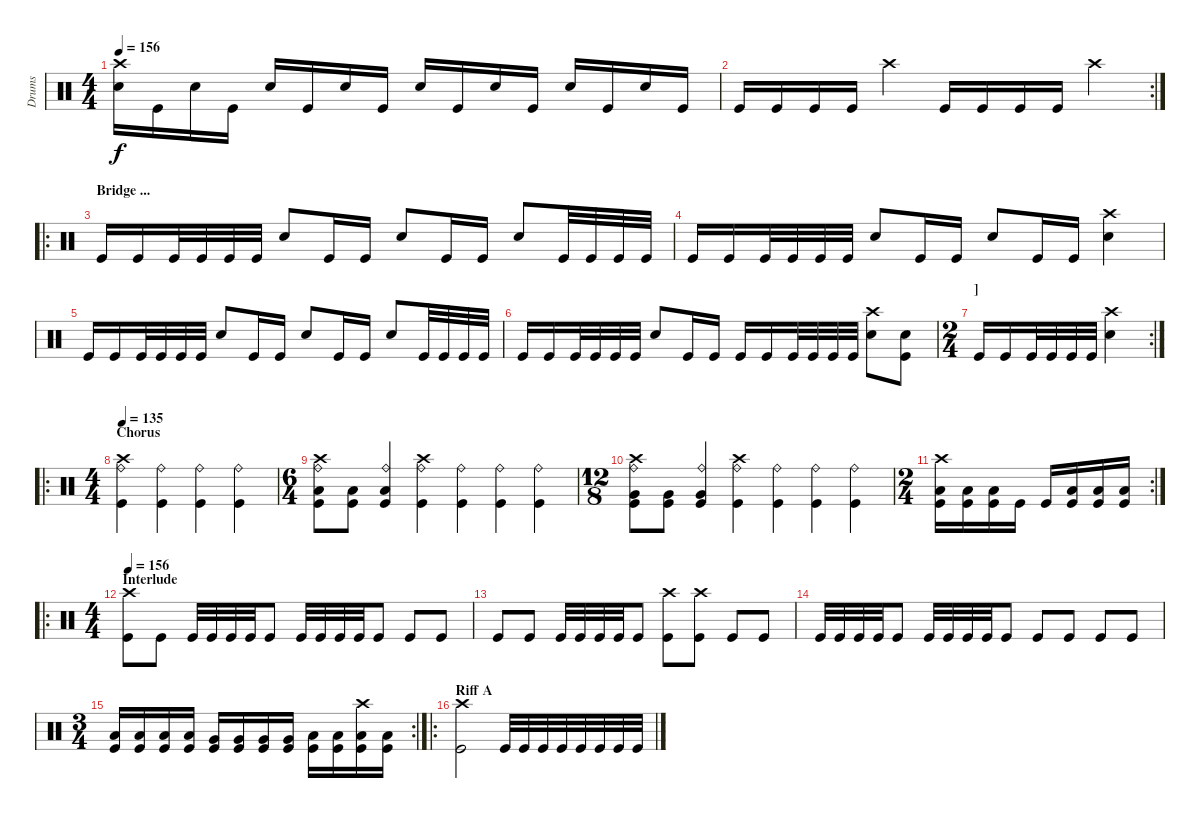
\track ("Drums" "Drums") {instrument percussion}
\staff {score}
\articulation defaults
\ts (4 4)
\tempo 156
\clef neutral
\ks c
("Crash high (hit)" "Electric Snare (hit)").16{dy f} "Kick (hit)".16 "Electric Snare (hit)".16 "Kick (hit)".16 "Electric Snare (hit)".16 "Kick (hit)".16 "Electric Snare (hit)".16 "Kick (hit)".16 "Electric Snare (hit)".16 "Kick (hit)".16 "Electric Snare (hit)".16 "Kick (hit)".16 "Electric Snare (hit)".16 "Kick (hit)".16 "Electric Snare (hit)".16 "Kick (hit)".16 |
\rc 2 "Kick (hit)".16 "Kick (hit)".16 "Kick (hit)".16 "Kick (hit)".16 "Crash high (hit)".4 "Kick (hit)".16 "Kick (hit)".16 "Kick (hit)".16 "Kick (hit)".16 "Crash high (hit)".4
|
\ro
\section ("" "Bridge ...")
"Kick (hit)".16 "Kick (hit)".16 "Kick (hit)".32 "Kick (hit)".32 "Kick (hit)".32 "Kick (hit)".32 "Electric Snare (hit)".8 "Kick (hit)".16 "Kick (hit)".16 "Electric Snare (hit)".8 "Kick (hit)".16 "Kick (hit)".16 "Electric Snare (hit)".8 "Kick (hit)".32 "Kick (hit)".32 "Kick (hit)".32 "Kick (hit)".32 |
"Kick (hit)".16 "Kick (hit)".16 "Kick (hit)".32 "Kick (hit)".32 "Kick (hit)".32 "Kick (hit)".32 "Electric Snare (hit)".8 "Kick (hit)".16 "Kick (hit)".16 "Electric Snare (hit)".8 "Kick (hit)".16 "Kick (hit)".16 ("Crash high (hit)" "Electric Snare (hit)").4 |
"Kick (hit)".16 "Kick (hit)".16 "Kick (hit)".32 "Kick (hit)".32 "Kick (hit)".32 "Kick (hit)".32 "Electric Snare (hit)".8 "Kick (hit)".16 "Kick (hit)".16 "Electric Snare (hit)".8 "Kick (hit)".16 "Kick (hit)".16 "Electric Snare (hit)".8 "Kick (hit)".32 "Kick (hit)".32 "Kick (hit)".32 "Kick (hit)".32 |
"Kick (hit)".16 "Kick (hit)".16 "Kick (hit)".32 "Kick (hit)".32 "Kick (hit)".32 "Kick (hit)".32 "Electric Snare (hit)".8 "Kick (hit)".16 "Kick (hit)".16 "Kick (hit)".16 "Kick (hit)".16 "Kick (hit)".32 "Kick (hit)".32 "Kick (hit)".32 "Kick (hit)".32 ("Crash high (hit)" "Electric Snare (hit)").8 ("Electric Snare (hit)" "Kick (hit)").8 |
\rc 2
\ts (2 4)
\section ("" "]")
"Kick (hit)".16 "Kick (hit)".16 "Kick (hit)".32 "Kick (hit)".32 "Kick (hit)".32 "Kick (hit)".32 ("Crash high (hit)" "Electric Snare (hit)").4 |
\ro
\ts (4 4)
\section ("" "Chorus")
\tempo 135
("Crash high (hit)" "Ride (bell)" "Kick (hit)").4 ("Ride (bell)" "Kick (hit)").4 ("Ride (bell)" "Kick (hit)").4 ("Ride (bell)" "Kick (hit)").4 |
\ts (6 4)
("Ride (bell)" "Crash high (hit)" "Low Floor Tom (hit)" "Kick (hit)").8 ("Low Floor Tom (hit)" "Kick (hit)").8 ("Ride (bell)" "Low Floor Tom (hit)" "Kick (hit)").4 ("Crash high (hit)" "Ride (bell)" "Kick (hit)").4 ("Kick (hit)" "Ride (bell)").4 ("Ride (bell)" "Kick (hit)").4 ("Ride (bell)" "Kick (hit)").4 |
\ts (12 8)
("Ride (bell)" "Crash high (hit)" "Very Low Tom (hit)" "Kick (hit)").8 ("Very Low Tom (hit)" "Kick (hit)").8 ("Ride (bell)" "Very Low Tom (hit)" "Kick (hit)").4 ("Crash high (hit)" "Ride (bell)" "Kick (hit)").4 ("Kick (hit)" "Ride (bell)").4 ("Ride (bell)" "Kick (hit)").4 ("Ride (bell)" "Kick (hit)").4 |
\rc 2
\ts (2 4)
("Crash high (hit)" "Low Floor Tom (hit)" "Kick (hit)").16 ("Low Floor Tom (hit)" "Kick (hit)").16 ("Low Floor Tom (hit)" "Kick (hit)").16 "Kick (hit)".16 "Kick (hit)".16 ("Low Floor Tom (hit)" "Kick (hit)").16 ("Low Floor Tom (hit)" "Kick (hit)").16 ("Low Floor Tom (hit)" "Kick (hit)").16 |
\ro
\ts (4 4)
\section ("" "Interlude")
\tempo 156
("Crash high (hit)" "Kick (hit)").8 "Kick (hit)".8 "Kick (hit)".32 "Kick (hit)".32 "Kick (hit)".32 "Kick (hit)".32 "Kick (hit)".8 "Kick (hit)".32 "Kick (hit)".32 "Kick (hit)".32 "Kick (hit)".32 "Kick (hit)".8 "Kick (hit)".8 "Kick (hit)".8 |
"Kick (hit)".8 "Kick (hit)".8 "Kick (hit)".32 "Kick (hit)".32 "Kick (hit)".32 "Kick (hit)".32 "Kick (hit)".8 ("Crash high (hit)" "Kick (hit)").8 ("Crash high (hit)" "Kick (hit)").8 "Kick (hit)".8 "Kick (hit)".8 |
"Kick (hit)".32 "Kick (hit)".32 "Kick (hit)".32 "Kick (hit)".32 "Kick (hit)".8 "Kick (hit)".32 "Kick (hit)".32 "Kick (hit)".32 "Kick (hit)".32 "Kick (hit)".8 "Kick (hit)".8 "Kick (hit)".8 "Kick (hit)".8 "Kick (hit)".8 |
\rc 2
\ts (3 4)
("Kick (hit)" "Low Tom (hit)").16 ("Kick (hit)" "Low Tom (hit)").16 ("Kick (hit)" "Low Tom (hit)").16 ("Kick (hit)" "Low Tom (hit)").16 ("Kick (hit)" "Very Low Tom (hit)").16 ("Kick (hit)" "Very Low Tom (hit)").16 ("Kick (hit)" "Very Low Tom (hit)").16 ("Kick (hit)" "Very Low Tom (hit)").16 ("Kick (hit)" "Low Floor Tom (hit)").16 ("Kick (hit)" "Low Floor Tom (hit)").16 ("Crash high (hit)" "Kick (hit)" "Low Floor Tom (hit)").16 ("Kick (hit)" "Low Floor Tom (hit)").16 |
\ro
\section ("" "Riff A")
("Crash high (hit)" "Kick (hit)").2 "Kick (hit)".32 "Kick (hit)".32 "Kick (hit)".32 "Kick (hit)".32 "Kick (hit)".32 "Kick (hit)".32 "Kick (hit)".32 "Kick (hit)".32
